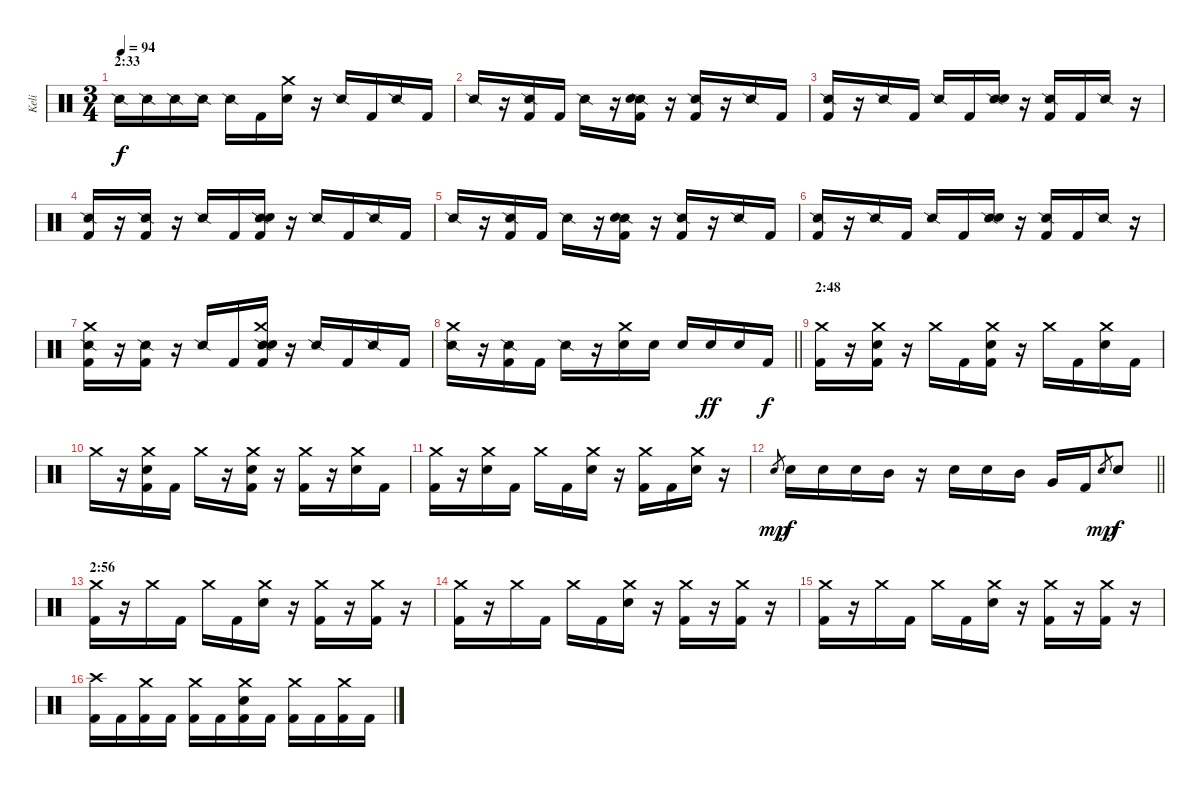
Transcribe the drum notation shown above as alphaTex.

\track ("Keli" "Keli") {instrument percussion}
\staff {score}
\articulation defaults
\ts (3 4)
\section ("" "2:33")
\tempo 94
\clef neutral
\ks c "Snare (side stick) 2".16{dy f} "Snare (side stick) 2".16 "Snare (side stick) 2".16 "Snare (side stick) 2".16 "Snare (side stick) 2".16 "Kick (hit) 2".16
("Crash medium (hit)" "Snare (hit) 2").16 r.16 "Snare (side stick) 2".16 "Kick (hit) 2".16 "Snare (side stick) 2".16 "Kick (hit) 2".16 |
"Snare (side stick) 2".16 r.16 ("Snare (side stick) 2" "Kick (hit) 2").16 "Kick (hit) 2".16 "Snare (side stick) 2".16 r.16 ("Snare (side stick) 2" "Snare (hit) 2" "Kick (hit) 2").16 r.16 ("Snare (side stick) 2" "Kick (hit) 2").16 r.16 "Snare (side stick) 2".16 "Kick (hit) 2".16 |
("Snare (side stick) 2" "Kick (hit) 2").16 r.16 "Snare (side stick) 2".16 "Kick (hit) 2".16 "Snare (side stick) 2".16 "Kick (hit) 2".16 ("Snare (side stick) 2" "Snare (hit) 2").16 r.16 ("Snare (side stick) 2" "Kick (hit) 2").16 "Kick (hit) 2".16 "Snare (side stick) 2".16 r.16 |
("Snare (side stick) 2" "Kick (hit) 2").16 r.16 ("Snare (side stick) 2" "Kick (hit) 2").16 r.16 "Snare (side stick) 2".16 "Kick (hit) 2".16 ("Snare (side stick) 2" "Snare (hit) 2" "Kick (hit) 2").16 r.16 "Snare (side stick) 2".16 "Kick (hit) 2".16 "Snare (side stick) 2".16 "Kick (hit) 2".16 |
"Snare (side stick) 2".16 r.16 ("Snare (side stick) 2" "Kick (hit) 2").16 "Kick (hit) 2".16 "Snare (side stick) 2".16 r.16 ("Snare (side stick) 2" "Snare (hit) 2" "Kick (hit) 2").16 r.16 ("Snare (side stick) 2" "Kick (hit) 2").16 r.16 "Snare (side stick) 2".16 "Kick (hit) 2".16 |
("Snare (side stick) 2" "Kick (hit) 2").16 r.16 "Snare (side stick) 2".16 "Kick (hit) 2".16 "Snare (side stick) 2".16 "Kick (hit) 2".16 ("Snare (side stick) 2" "Snare (hit) 2").16 r.16 ("Snare (side stick) 2" "Kick (hit) 2").16 "Kick (hit) 2".16 "Snare (side stick) 2".16 r.16 |
("Crash medium (hit)" "Snare (side stick) 2" "Kick (hit) 2").16 r.16 ("Snare (side stick) 2" "Kick (hit) 2").16 r.16 "Snare (side stick) 2".16 "Kick (hit) 2".16 ("Crash medium (hit)" "Snare (side stick) 2" "Snare (hit) 2" "Kick (hit) 2").16 r.16 "Snare (side stick) 2".16 "Kick (hit) 2".16 "Snare (side stick) 2".16 "Kick (hit) 2".16 |
\barLineRight lightlight
("Crash medium (hit)" "Snare (side stick) 2").16 r.16 ("Snare (side stick) 2" "Kick (hit) 2").16 "Kick (hit) 2".16 "Snare (side stick) 2".16 r.16 ("Crash medium (hit)" "Snare (hit) 2").16 "Snare (hit) 2".16 "Snare (hit) 2".16 "Snare (hit) 2".16{dy ff} "Snare (hit) 2".16 "Kick (hit) 2".16{dy f} |
\section ("" "2:48")
("Crash medium (hit)" "Kick (hit) 2").16 r.16 ("Crash medium (hit)" "Snare (hit) 2" "Kick (hit) 2").16 r.16 "Crash medium (hit)".16 "Kick (hit) 2".16 ("Crash medium (hit)" "Snare (hit) 2" "Kick (hit) 2").16 r.16 "Crash medium (hit)".16 "Kick (hit) 2".16 ("Crash medium (hit)" "Snare (hit) 2").16 "Kick (hit) 2".16 |
"Crash medium (hit)".16 r.16 ("Crash medium (hit)" "Snare (hit) 2" "Kick (hit) 2").16 "Kick (hit) 2".16 "Crash medium (hit)".16 r.16 ("Crash medium (hit)" "Snare (hit) 2" "Kick (hit) 2").16 r.16 ("Crash medium (hit)" "Kick (hit) 2").16 r.16 ("Crash medium (hit)" "Snare (hit) 2").16 "Kick (hit) 2".16 |
("Crash medium (hit)" "Kick (hit) 2").16 r.16 ("Crash medium (hit)" "Snare (hit) 2").16 "Kick (hit) 2".16 "Crash medium (hit)".16 "Kick (hit) 2".16 ("Crash medium (hit)" "Snare (hit) 2").16 r.16 ("Crash medium (hit)" "Kick (hit) 2").16 "Kick (hit) 2".16 ("Crash medium (hit)" "Snare (hit) 2").16 r.16 |
\barLineRight lightlight "Snare (hit) 2".8{gr dy mp} "Snare (hit) 2".16{dy f} "Snare (hit) 2".16 "Snare (hit) 2".16 "Mid Tom (hit)".16
r.16 "Snare (hit) 2".16 "Snare (hit) 2".16 "Mid Tom (hit)".16 "Very Low Tom (hit)".16 "Kick (hit) 2".16 "Snare (hit) 2".8{gr dy mp} "Snare (hit) 2".8{dy f} |
\section ("" "2:56")
("Crash medium (hit)" "Kick (hit) 2").16 r.16 "Crash medium (hit)".16 "Kick (hit) 2".16 "Crash medium (hit)".16 "Kick (hit) 2".16 ("Crash medium (hit)" "Snare (hit) 2").16 r.16 ("Crash medium (hit)" "Kick (hit) 2").16 r.16 ("Crash medium (hit)" "Kick (hit) 2").16 r.16 |
("Crash medium (hit)" "Kick (hit) 2").16 r.16 "Crash medium (hit)".16 "Kick (hit) 2".16 "Crash medium (hit)".16 "Kick (hit) 2".16 ("Crash medium (hit)" "Snare (hit) 2").16 r.16 ("Crash medium (hit)" "Kick (hit) 2").16 r.16 ("Crash medium (hit)" "Kick (hit) 2").16 r.16 |
("Crash medium (hit)" "Kick (hit) 2").16 r.16 "Crash medium (hit)".16 "Kick (hit) 2".16 "Crash medium (hit)".16 "Kick (hit) 2".16 ("Crash medium (hit)" "Snare (hit) 2").16 r.16 ("Crash medium (hit)" "Kick (hit) 2").16 r.16 ("Crash medium (hit)" "Kick (hit) 2").16 r.16 |
("Crash high (hit)" "Kick (hit) 2").16 "Kick (hit) 2".16 ("Crash medium (hit)" "Kick (hit) 2").16 "Kick (hit) 2".16 ("Crash medium (hit)" "Kick (hit) 2").16 "Kick (hit) 2".16 ("Crash medium (hit)" "Snare (hit) 2" "Kick (hit) 2").16 "Kick (hit) 2".16 ("Crash medium (hit)" "Kick (hit) 2").16 "Kick (hit) 2".16 ("Crash medium (hit)" "Kick (hit) 2").16 "Kick (hit) 2".16
